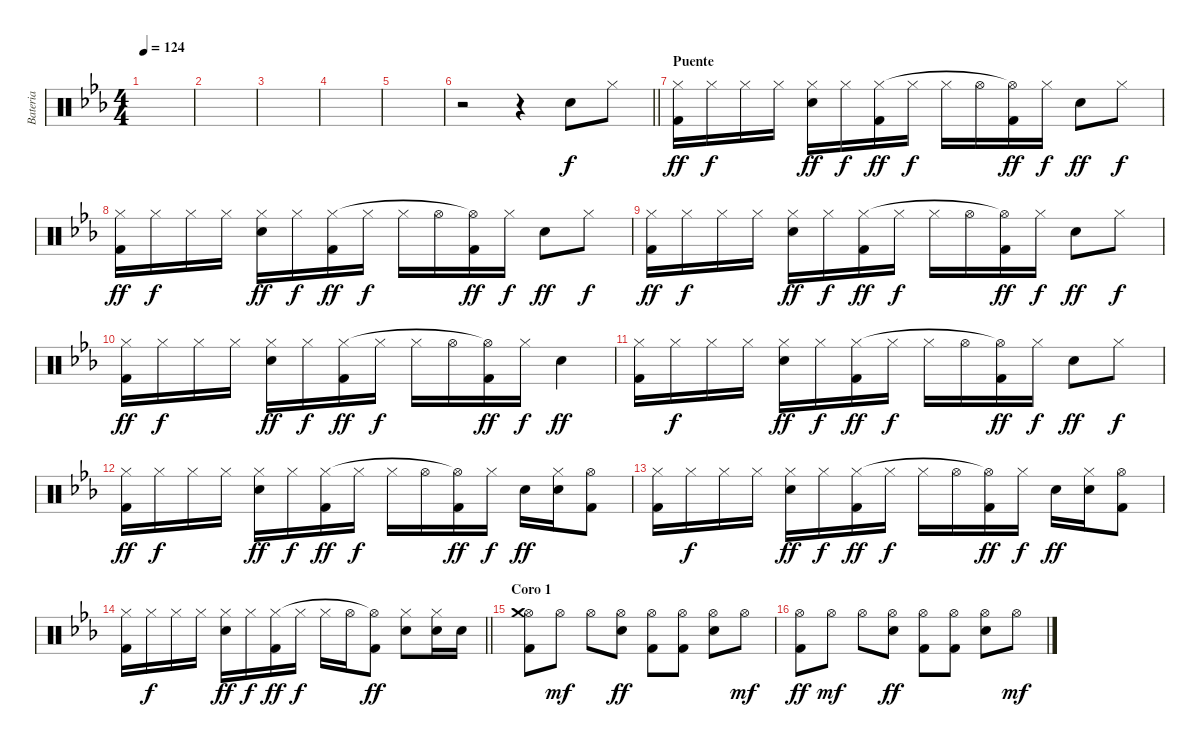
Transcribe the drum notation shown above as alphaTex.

\track ("Bateria" "Bateria") {instrument percussion}
\staff {score}
\articulation defaults
\ts (4 4)
\tempo 124
\clef neutral
\ks eb
|
|
|
|
|
\barLineRight lightlight
r.2 r.4 "Electric Snare (hit)".8 "Hi-Hat (closed)".8 |
\section ("" "Puente")
("Kick (hit) 2" "Hi-Hat (closed)").16{dy ff} "Hi-Hat (closed)".16{dy f} "Hi-Hat (closed)".16 "Hi-Hat (closed)".16 ("Electric Snare (hit)" "Hi-Hat (closed)").16{dy ff} "Hi-Hat (closed)".16{dy f} ("Kick (hit) 2" "Hi-Hat (closed)").16{dy ff} "Hi-Hat (closed)".16{dy f} "Hi-Hat (closed)".16 "Hi-Hat (open)".16 ("Kick (hit) 2" "Hi-Hat (open)"{t}).16{dy ff} "Hi-Hat (closed)".16{dy f} "Electric Snare (hit)".8{dy ff} "Hi-Hat (closed)".8{dy f} |
("Kick (hit) 2" "Hi-Hat (closed)").16{dy ff} "Hi-Hat (closed)".16{dy f} "Hi-Hat (closed)".16 "Hi-Hat (closed)".16 ("Electric Snare (hit)" "Hi-Hat (closed)").16{dy ff} "Hi-Hat (closed)".16{dy f} ("Kick (hit) 2" "Hi-Hat (closed)").16{dy ff} "Hi-Hat (closed)".16{dy f} "Hi-Hat (closed)".16 "Hi-Hat (open)".16 ("Kick (hit) 2" "Hi-Hat (open)"{t}).16{dy ff} "Hi-Hat (closed)".16{dy f} "Electric Snare (hit)".8{dy ff} "Hi-Hat (closed)".8{dy f} |
("Kick (hit) 2" "Hi-Hat (closed)").16{dy ff} "Hi-Hat (closed)".16{dy f} "Hi-Hat (closed)".16 "Hi-Hat (closed)".16 ("Electric Snare (hit)" "Hi-Hat (closed)").16{dy ff} "Hi-Hat (closed)".16{dy f} ("Kick (hit) 2" "Hi-Hat (closed)").16{dy ff} "Hi-Hat (closed)".16{dy f} "Hi-Hat (closed)".16 "Hi-Hat (open)".16 ("Kick (hit) 2" "Hi-Hat (open)"{t}).16{dy ff} "Hi-Hat (closed)".16{dy f} "Electric Snare (hit)".8{dy ff} "Hi-Hat (closed)".8{dy f} |
("Kick (hit) 2" "Hi-Hat (closed)").16{dy ff} "Hi-Hat (closed)".16{dy f} "Hi-Hat (closed)".16 "Hi-Hat (closed)".16 ("Electric Snare (hit)" "Hi-Hat (closed)").16{dy ff} "Hi-Hat (closed)".16{dy f} ("Kick (hit) 2" "Hi-Hat (closed)").16{dy ff} "Hi-Hat (closed)".16{dy f} "Hi-Hat (closed)".16 "Hi-Hat (open)".16 ("Kick (hit) 2" "Hi-Hat (open)"{t}).16{dy ff} "Hi-Hat (closed)".16{dy f} "Electric Snare (hit)".4{dy ff} |
("Kick (hit) 2" "Hi-Hat (closed)").16 "Hi-Hat (closed)".16{dy f} "Hi-Hat (closed)".16 "Hi-Hat (closed)".16 ("Electric Snare (hit)" "Hi-Hat (closed)").16{dy ff} "Hi-Hat (closed)".16{dy f} ("Kick (hit) 2" "Hi-Hat (closed)").16{dy ff} "Hi-Hat (closed)".16{dy f} "Hi-Hat (closed)".16 "Hi-Hat (open)".16 ("Kick (hit) 2" "Hi-Hat (open)"{t}).16{dy ff} "Hi-Hat (closed)".16{dy f} "Electric Snare (hit)".8{dy ff} "Hi-Hat (closed)".8{dy f} |
("Kick (hit) 2" "Hi-Hat (closed)").16{dy ff} "Hi-Hat (closed)".16{dy f} "Hi-Hat (closed)".16 "Hi-Hat (closed)".16 ("Electric Snare (hit)" "Hi-Hat (closed)").16{dy ff} "Hi-Hat (closed)".16{dy f} ("Kick (hit) 2" "Hi-Hat (closed)").16{dy ff} "Hi-Hat (closed)".16{dy f} "Hi-Hat (closed)".16 "Hi-Hat (open)".16 ("Kick (hit) 2" "Hi-Hat (open)"{t}).16{dy ff} "Hi-Hat (closed)".16{dy f} "Electric Snare (hit)".16{dy ff} ("Electric Snare (hit)" "Hi-Hat (closed)").16 ("Kick (hit) 2" "Hi-Hat (open)").8 |
("Kick (hit) 2" "Hi-Hat (closed)").16 "Hi-Hat (closed)".16{dy f} "Hi-Hat (closed)".16 "Hi-Hat (closed)".16 ("Electric Snare (hit)" "Hi-Hat (closed)").16{dy ff} "Hi-Hat (closed)".16{dy f} ("Kick (hit) 2" "Hi-Hat (closed)").16{dy ff} "Hi-Hat (closed)".16{dy f} "Hi-Hat (closed)".16 "Hi-Hat (open)".16 ("Kick (hit) 2" "Hi-Hat (open)"{t}).16{dy ff} "Hi-Hat (closed)".16{dy f} "Electric Snare (hit)".16{dy ff} ("Electric Snare (hit)" "Hi-Hat (closed)").16 ("Kick (hit) 2" "Hi-Hat (open)").8 |
\barLineRight lightlight
("Kick (hit) 2" "Hi-Hat (closed)").16 "Hi-Hat (closed)".16{dy f} "Hi-Hat (closed)".16 "Hi-Hat (closed)".16 ("Electric Snare (hit)" "Hi-Hat (closed)").16{dy ff} "Hi-Hat (closed)".16{dy f} ("Kick (hit) 2" "Hi-Hat (closed)").16{dy ff} "Hi-Hat (closed)".16{dy f} "Hi-Hat (closed)".16 "Hi-Hat (open)".16 ("Kick (hit) 2" "Hi-Hat (open)"{t}).8{dy ff} ("Electric Snare (hit)" "Hi-Hat (closed)").8 ("Electric Snare (hit)" "Hi-Hat (closed)").16 "Electric Snare (hit)".16 |
\section ("" "Coro 1")
("Hi-Hat (open)" "Kick (hit) 2" "Crash medium (hit)").8 "Hi-Hat (open)".8{dy mf} "Hi-Hat (open)".8 ("Hi-Hat (open)" "Electric Snare (hit)").8{dy ff} ("Hi-Hat (open)" "Kick (hit) 2").8 ("Hi-Hat (open)" "Kick (hit) 2").8 ("Hi-Hat (open)" "Electric Snare (hit)").8 "Hi-Hat (open)".8{dy mf} |
("Hi-Hat (open)" "Kick (hit) 2").8{dy ff} "Hi-Hat (open)".8{dy mf} "Hi-Hat (open)".8 ("Hi-Hat (open)" "Electric Snare (hit)").8{dy ff} ("Hi-Hat (open)" "Kick (hit) 2").8 ("Hi-Hat (open)" "Kick (hit) 2").8 ("Hi-Hat (open)" "Electric Snare (hit)").8 "Hi-Hat (open)".8{dy mf}
